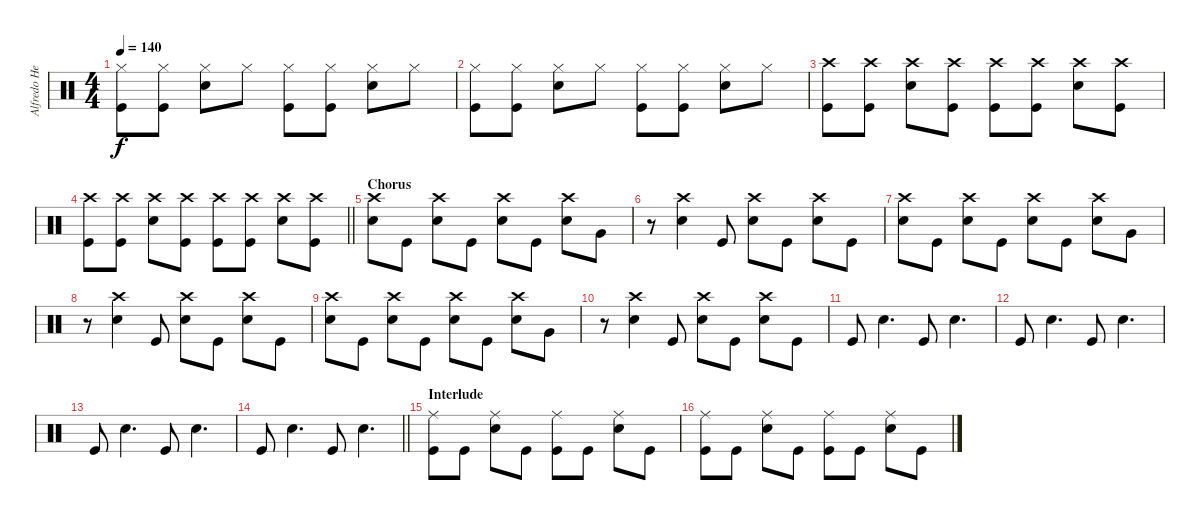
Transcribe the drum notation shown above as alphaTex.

\track ("Alfredo Hernandez - Percussion" "Alfredo He") {instrument percussion}
\staff {score}
\articulation defaults
\ts (4 4)
\tempo 140
\clef neutral
\ks c
("Kick (hit)" "Hi-Hat (closed)").8{dy f} ("Kick (hit)" "Hi-Hat (closed)").8 ("Snare (hit) 2" "Hi-Hat (closed)").8 "Hi-Hat (closed)".8 ("Kick (hit)" "Hi-Hat (closed)").8 ("Kick (hit)" "Hi-Hat (closed)").8 ("Snare (hit) 2" "Hi-Hat (closed)").8 "Hi-Hat (closed)".8 |
("Kick (hit)" "Hi-Hat (closed)").8 ("Kick (hit)" "Hi-Hat (closed)").8 ("Snare (hit) 2" "Hi-Hat (closed)").8 "Hi-Hat (closed)".8 ("Kick (hit)" "Hi-Hat (closed)").8 ("Kick (hit)" "Hi-Hat (closed)").8 ("Snare (hit) 2" "Hi-Hat (closed)").8 "Hi-Hat (closed)".8 |
("Kick (hit)" "Crash high (hit)").8 ("Kick (hit)" "Crash high (hit)").8 ("Snare (hit) 2" "Crash high (hit)").8 ("Kick (hit)" "Crash high (hit)").8 ("Kick (hit)" "Crash high (hit)").8 ("Kick (hit)" "Crash high (hit)").8 ("Snare (hit) 2" "Crash high (hit)").8 ("Kick (hit)" "Crash high (hit)").8 |
\barLineRight lightlight
("Kick (hit)" "Crash high (hit)").8 ("Kick (hit)" "Crash high (hit)").8 ("Snare (hit) 2" "Crash high (hit)").8 ("Kick (hit)" "Crash high (hit)").8 ("Kick (hit)" "Crash high (hit)").8 ("Kick (hit)" "Crash high (hit)").8 ("Snare (hit) 2" "Crash high (hit)").8 ("Kick (hit)" "Crash high (hit)").8 |
\section ("" "Chorus")
("Snare (hit) 2" "Crash high (hit)").8 "Kick (hit)".8 ("Snare (hit) 2" "Crash high (hit)").8 "Kick (hit)".8 ("Snare (hit) 2" "Crash high (hit)").8 "Kick (hit)".8 ("Snare (hit) 2" "Crash high (hit)").8 "Very Low Tom (hit)".8 |
r.8 ("Snare (hit) 2" "Crash high (hit)").4 "Kick (hit)".8 ("Snare (hit) 2" "Crash high (hit)").8 "Kick (hit)".8 ("Snare (hit) 2" "Crash high (hit)").8 "Kick (hit)".8 |
("Snare (hit) 2" "Crash high (hit)").8 "Kick (hit)".8 ("Snare (hit) 2" "Crash high (hit)").8 "Kick (hit)".8 ("Snare (hit) 2" "Crash high (hit)").8 "Kick (hit)".8 ("Snare (hit) 2" "Crash high (hit)").8 "Very Low Tom (hit)".8 |
r.8 ("Snare (hit) 2" "Crash high (hit)").4 "Kick (hit)".8 ("Snare (hit) 2" "Crash high (hit)").8 "Kick (hit)".8 ("Snare (hit) 2" "Crash high (hit)").8 "Kick (hit)".8 |
("Snare (hit) 2" "Crash high (hit)").8 "Kick (hit)".8 ("Snare (hit) 2" "Crash high (hit)").8 "Kick (hit)".8 ("Snare (hit) 2" "Crash high (hit)").8 "Kick (hit)".8 ("Snare (hit) 2" "Crash high (hit)").8 "Very Low Tom (hit)".8 |
r.8 ("Snare (hit) 2" "Crash high (hit)").4 "Kick (hit)".8 ("Snare (hit) 2" "Crash high (hit)").8 "Kick (hit)".8 ("Snare (hit) 2" "Crash high (hit)").8 "Kick (hit)".8 |
"Kick (hit)".8 "Snare (hit) 2".4{d} "Kick (hit)".8 "Snare (hit) 2".4{d} |
"Kick (hit)".8 "Snare (hit) 2".4{d} "Kick (hit)".8 "Snare (hit) 2".4{d} |
"Kick (hit)".8 "Snare (hit) 2".4{d} "Kick (hit)".8 "Snare (hit) 2".4{d} |
\barLineRight lightlight "Kick (hit)".8 "Snare (hit) 2".4{d} "Kick (hit)".8 "Snare (hit) 2".4{d}
|
\section ("" "Interlude")
("Kick (hit)" "Ride (middle)").8 "Kick (hit)".8 ("Snare (hit) 2" "Ride (middle)").8 "Kick (hit)".8 ("Kick (hit)" "Ride (middle)").8 "Kick (hit)".8 ("Snare (hit) 2" "Ride (middle)").8 "Kick (hit)".8 |
("Kick (hit)" "Ride (middle)").8 "Kick (hit)".8 ("Snare (hit) 2" "Ride (middle)").8 "Kick (hit)".8 ("Kick (hit)" "Ride (middle)").8 "Kick (hit)".8 ("Snare (hit) 2" "Ride (middle)").8 "Kick (hit)".8
